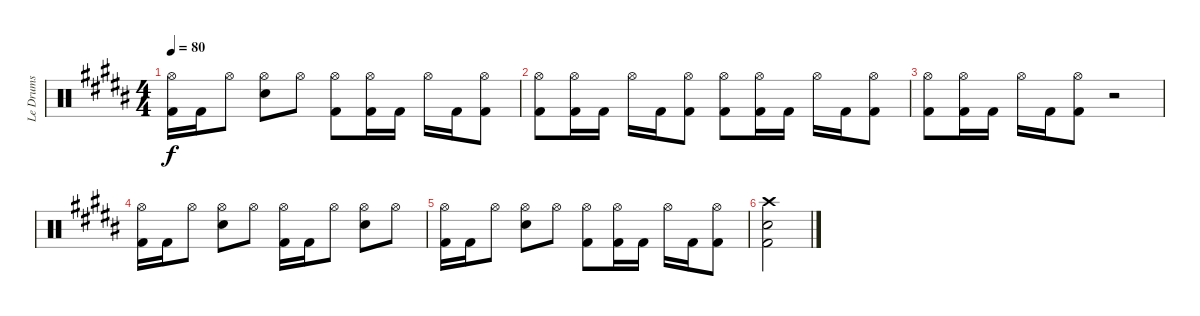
\track ("Le Drums" "Le Drums") {instrument percussion}
\staff {score}
\articulation defaults
\ts (4 4)
\tempo 80
\clef neutral
\ks b
("Hi-Hat (open)" "Kick (hit) 2").16{dy f} "Kick (hit) 2".16 "Hi-Hat (open)".8 ("Hi-Hat (open)" "Snare (hit) 2").8 "Hi-Hat (open)".8 ("Hi-Hat (open)" "Kick (hit) 2").8 ("Hi-Hat (open)" "Kick (hit) 2").16 "Kick (hit) 2".16 "Hi-Hat (open)".16 "Kick (hit) 2".16 ("Hi-Hat (open)" "Kick (hit) 2").8 |
("Hi-Hat (open)" "Kick (hit) 2").8 ("Hi-Hat (open)" "Kick (hit) 2").16 "Kick (hit) 2".16 "Hi-Hat (open)".16 "Kick (hit) 2".16 ("Hi-Hat (open)" "Kick (hit) 2").8 ("Hi-Hat (open)" "Kick (hit) 2").8 ("Hi-Hat (open)" "Kick (hit) 2").16 "Kick (hit) 2".16 "Hi-Hat (open)".16 "Kick (hit) 2".16 ("Hi-Hat (open)" "Kick (hit) 2").8 |
("Hi-Hat (open)" "Kick (hit) 2").8 ("Hi-Hat (open)" "Kick (hit) 2").16 "Kick (hit) 2".16 "Hi-Hat (open)".16 "Kick (hit) 2".16 ("Hi-Hat (open)" "Kick (hit) 2").8 r.2 |
("Hi-Hat (open)" "Kick (hit) 2").16 "Kick (hit) 2".16 "Hi-Hat (open)".8 ("Hi-Hat (open)" "Snare (hit) 2").8 "Hi-Hat (open)".8 ("Hi-Hat (open)" "Kick (hit) 2").16 "Kick (hit) 2".16 "Hi-Hat (open)".8 ("Hi-Hat (open)" "Snare (hit) 2").8 "Hi-Hat (open)".8 |
("Hi-Hat (open)" "Kick (hit) 2").16 "Kick (hit) 2".16 "Hi-Hat (open)".8 ("Hi-Hat (open)" "Snare (hit) 2").8 "Hi-Hat (open)".8 ("Hi-Hat (open)" "Kick (hit) 2").8 ("Hi-Hat (open)" "Kick (hit) 2").16 "Kick (hit) 2".16 "Hi-Hat (open)".16 "Kick (hit) 2".16 ("Hi-Hat (open)" "Kick (hit) 2").8 |
("Crash high (hit)" "Snare (hit) 2" "Kick (hit) 2").2
